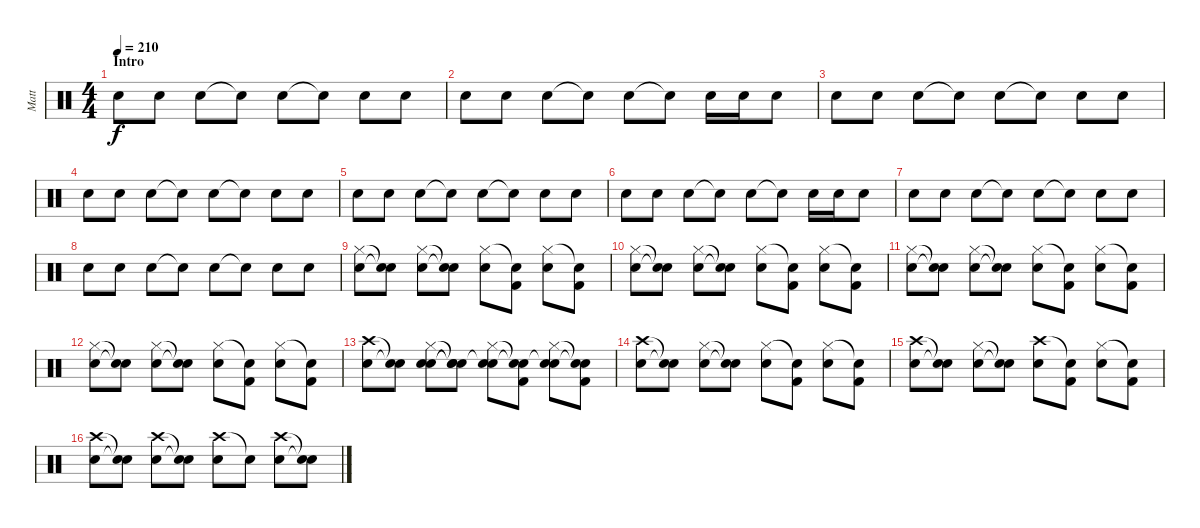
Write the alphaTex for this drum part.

\track ("Matt" "Matt") {instrument percussion}
\staff {score}
\articulation defaults
\ts (4 4)
\section ("" "Intro")
\tempo 210
\clef neutral
\ks c "Snare (hit) 2".8{dy f} "Snare (hit) 2".8 "Snare (hit) 2".8 "Snare (hit)"{t}.8 "Snare (hit) 2".8 "Snare (hit)"{t}.8 "Snare (hit) 2".8 "Snare (hit) 2".8
|
"Snare (hit) 2".8 "Snare (hit) 2".8 "Snare (hit) 2".8 "Snare (hit)"{t}.8 "Snare (hit) 2".8 "Snare (hit)"{t}.8 "Snare (hit) 2".16 "Snare (hit) 2".16 "Snare (hit) 2".8 |
"Snare (hit) 2".8 "Snare (hit) 2".8 "Snare (hit) 2".8 "Snare (hit)"{t}.8 "Snare (hit) 2".8 "Snare (hit)"{t}.8 "Snare (hit) 2".8 "Snare (hit) 2".8 |
"Snare (hit) 2".8 "Snare (hit) 2".8 "Snare (hit) 2".8 "Snare (hit)"{t}.8 "Snare (hit) 2".8 "Snare (hit)"{t}.8 "Snare (hit) 2".8 "Snare (hit) 2".8 |
"Snare (hit) 2".8 "Snare (hit) 2".8 "Snare (hit) 2".8 "Snare (hit)"{t}.8 "Snare (hit) 2".8 "Snare (hit)"{t}.8 "Snare (hit) 2".8 "Snare (hit) 2".8 |
"Snare (hit) 2".8 "Snare (hit) 2".8 "Snare (hit) 2".8 "Snare (hit)"{t}.8 "Snare (hit) 2".8 "Snare (hit)"{t}.8 "Snare (hit) 2".16 "Snare (hit) 2".16 "Snare (hit) 2".8 |
"Snare (hit) 2".8 "Snare (hit) 2".8 "Snare (hit) 2".8 "Snare (hit)"{t}.8 "Snare (hit) 2".8 "Snare (hit)"{t}.8 "Snare (hit) 2".8 "Snare (hit) 2".8 |
"Snare (hit) 2".8 "Snare (hit) 2".8 "Snare (hit) 2".8 "Snare (hit)"{t}.8 "Snare (hit) 2".8 "Snare (hit)"{t}.8 "Snare (hit) 2".8 "Snare (hit) 2".8 |
("Hi-Hat (closed)" "Snare (hit) 2").8 ("Snare (hit)"{t} "Snare (hit)"{t}).8 ("Hi-Hat (closed)" "Snare (hit) 2").8 ("Snare (hit)"{t} "Snare (hit)"{t}).8 ("Hi-Hat (closed)" "Snare (hit) 2").8 ("Snare (hit)"{t} "Kick (hit) 2").8 ("Hi-Hat (closed)" "Snare (hit) 2").8 ("Snare (hit)"{t} "Kick (hit) 2").8 |
("Hi-Hat (closed)" "Snare (hit) 2").8 ("Snare (hit)"{t} "Snare (hit)"{t}).8 ("Hi-Hat (closed)" "Snare (hit) 2").8 ("Snare (hit)"{t} "Snare (hit)"{t}).8 ("Hi-Hat (closed)" "Snare (hit) 2").8 ("Snare (hit)"{t} "Kick (hit) 2").8 ("Hi-Hat (closed)" "Snare (hit) 2").8 ("Snare (hit)"{t} "Kick (hit) 2").8 |
("Hi-Hat (closed)" "Snare (hit) 2").8 ("Snare (hit)"{t} "Snare (hit)"{t}).8 ("Hi-Hat (closed)" "Snare (hit) 2").8 ("Snare (hit)"{t} "Snare (hit)"{t}).8 ("Hi-Hat (closed)" "Snare (hit) 2").8 ("Snare (hit)"{t} "Kick (hit) 2").8 ("Hi-Hat (closed)" "Snare (hit) 2").8 ("Snare (hit)"{t} "Kick (hit) 2").8 |
("Hi-Hat (closed)" "Snare (hit) 2").8 ("Snare (hit)"{t} "Snare (hit)"{t}).8 ("Hi-Hat (closed)" "Snare (hit) 2").8 ("Snare (hit)"{t} "Snare (hit)"{t}).8 ("Hi-Hat (closed)" "Snare (hit) 2").8 ("Snare (hit)"{t} "Kick (hit) 2").8 ("Hi-Hat (closed)" "Snare (hit) 2").8 ("Snare (hit)"{t} "Kick (hit) 2").8 |
("Snare (hit) 2" "Crash high (hit)").8 ("Snare (hit)"{t} "Snare (hit)"{t}).8 ("Hi-Hat (closed)" "Snare (hit) 2" "Snare (hit)").8 ("Snare (hit)"{t} "Snare (hit)"{t} "Snare (hit)"{t}).8 ("Hi-Hat (closed)" "Snare (hit) 2" "Snare (hit)"{t}).8 ("Snare (hit)"{t} "Kick (hit) 2" "Snare (hit)"{t}).8 ("Hi-Hat (closed)" "Snare (hit) 2" "Snare (hit)"{t}).8 ("Snare (hit)"{t} "Kick (hit) 2" "Snare (hit)"{t}).8 |
("Crash high (hit)" "Snare (hit) 2").8 ("Snare (hit)"{t} "Snare (hit)"{t}).8 ("Hi-Hat (closed)" "Snare (hit) 2").8 ("Snare (hit)"{t} "Snare (hit)"{t}).8 ("Hi-Hat (closed)" "Snare (hit) 2").8 ("Snare (hit)"{t} "Kick (hit) 2").8 ("Hi-Hat (closed)" "Snare (hit) 2").8 ("Snare (hit)"{t} "Kick (hit) 2").8 |
("Crash high (hit)" "Snare (hit) 2").8 ("Snare (hit)"{t} "Snare (hit)"{t}).8 ("Hi-Hat (closed)" "Snare (hit) 2").8 ("Snare (hit)"{t} "Snare (hit)"{t}).8 ("Crash high (hit)" "Snare (hit) 2").8 ("Snare (hit)"{t} "Kick (hit) 2").8 ("Hi-Hat (closed)" "Snare (hit) 2").8 ("Snare (hit)"{t} "Kick (hit) 2").8 |
("Crash high (hit)" "Snare (hit) 2").8 ("Snare (hit)"{t} "Snare (hit)"{t}).8 ("Crash high (hit)" "Snare (hit) 2").8 ("Snare (hit)"{t} "Snare (hit)"{t}).8 ("Crash high (hit)" "Snare (hit) 2").8 "Snare (hit)"{t}.8 ("Crash high (hit)" "Snare (hit) 2").8 ("Snare (hit)"{t} "Snare (hit)"{t}).8
